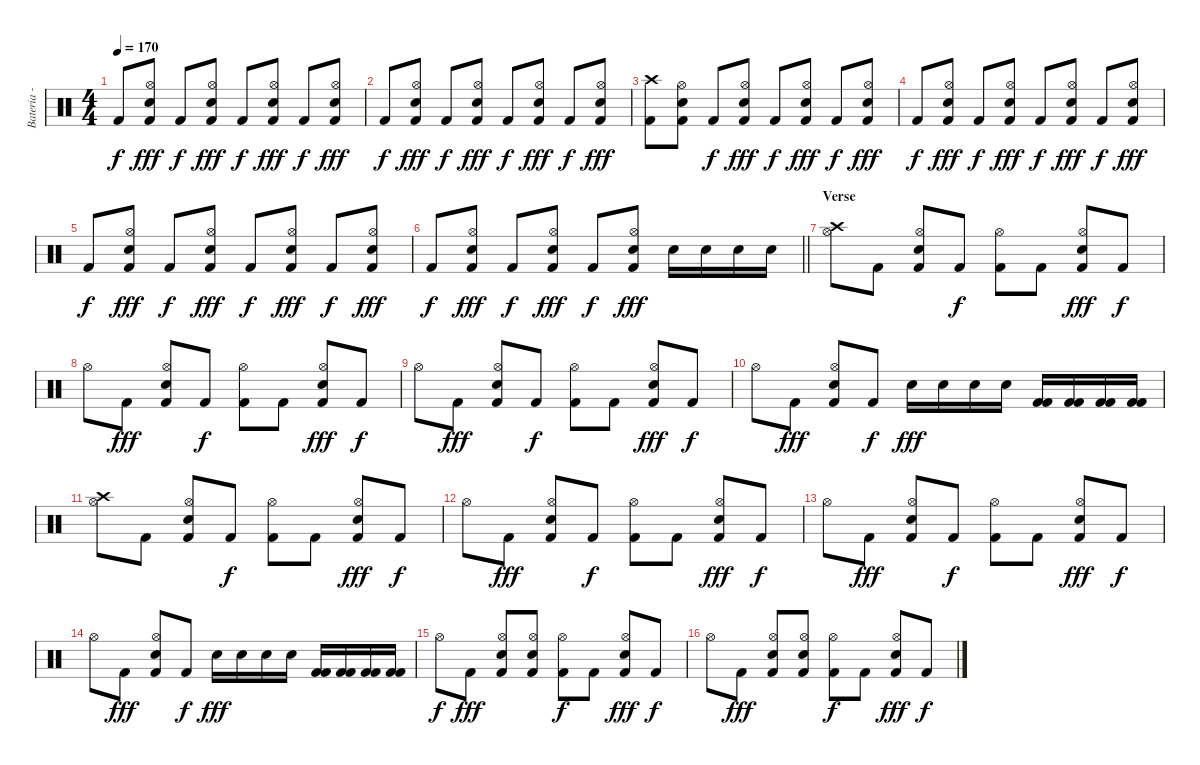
\track ("Bateria - Larzon" "Bateria - ") {instrument percussion}
\staff {score}
\articulation defaults
\ts (4 4)
\tempo 170
\clef neutral
\ks c "Kick (hit) 2".8{dy f}
("Kick (hit) 2" "Hi-Hat (open)" "Snare (hit) 2").8{dy fff} "Kick (hit) 2".8{dy f} ("Kick (hit) 2" "Hi-Hat (open)" "Snare (hit) 2").8{dy fff} "Kick (hit) 2".8{dy f} ("Kick (hit) 2" "Hi-Hat (open)" "Snare (hit) 2").8{dy fff} "Kick (hit) 2".8{dy f} ("Kick (hit) 2" "Hi-Hat (open)" "Snare (hit) 2").8{dy fff} |
"Kick (hit) 2".8{dy f} ("Kick (hit) 2" "Hi-Hat (open)" "Snare (hit) 2").8{dy fff} "Kick (hit) 2".8{dy f} ("Kick (hit) 2" "Hi-Hat (open)" "Snare (hit) 2").8{dy fff} "Kick (hit) 2".8{dy f} ("Kick (hit) 2" "Hi-Hat (open)" "Snare (hit) 2").8{dy fff} "Kick (hit) 2".8{dy f} ("Kick (hit) 2" "Hi-Hat (open)" "Snare (hit) 2").8{dy fff} |
("Crash high (hit)" "Kick (hit) 2").8 ("Kick (hit) 2" "Hi-Hat (open)" "Snare (hit) 2").8 "Kick (hit) 2".8{dy f} ("Kick (hit) 2" "Hi-Hat (open)" "Snare (hit) 2").8{dy fff} "Kick (hit) 2".8{dy f} ("Kick (hit) 2" "Hi-Hat (open)" "Snare (hit) 2").8{dy fff} "Kick (hit) 2".8{dy f} ("Kick (hit) 2" "Hi-Hat (open)" "Snare (hit) 2").8{dy fff} |
"Kick (hit) 2".8{dy f} ("Kick (hit) 2" "Hi-Hat (open)" "Snare (hit) 2").8{dy fff} "Kick (hit) 2".8{dy f} ("Kick (hit) 2" "Hi-Hat (open)" "Snare (hit) 2").8{dy fff} "Kick (hit) 2".8{dy f} ("Kick (hit) 2" "Hi-Hat (open)" "Snare (hit) 2").8{dy fff} "Kick (hit) 2".8{dy f} ("Kick (hit) 2" "Hi-Hat (open)" "Snare (hit) 2").8{dy fff} |
"Kick (hit) 2".8{dy f} ("Kick (hit) 2" "Hi-Hat (open)" "Snare (hit) 2").8{dy fff} "Kick (hit) 2".8{dy f} ("Kick (hit) 2" "Hi-Hat (open)" "Snare (hit) 2").8{dy fff} "Kick (hit) 2".8{dy f} ("Kick (hit) 2" "Hi-Hat (open)" "Snare (hit) 2").8{dy fff} "Kick (hit) 2".8{dy f} ("Kick (hit) 2" "Hi-Hat (open)" "Snare (hit) 2").8{dy fff} |
\barLineRight lightlight "Kick (hit) 2".8{dy f}
("Kick (hit) 2" "Hi-Hat (open)" "Snare (hit) 2").8{dy fff} "Kick (hit) 2".8{dy f} ("Kick (hit) 2" "Hi-Hat (open)" "Snare (hit) 2").8{dy fff} "Kick (hit) 2".8{dy f} ("Kick (hit) 2" "Hi-Hat (open)" "Snare (hit) 2").8{dy fff} "Snare (hit) 2".16 "Snare (hit) 2".16 "Snare (hit) 2".16 "Snare (hit) 2".16 |
\section ("" "Verse")
("Crash high (hit)" "Hi-Hat (open)").8 "Kick (hit) 2".8 ("Kick (hit) 2" "Hi-Hat (open)" "Snare (hit) 2").8 "Kick (hit) 2".8{dy f} ("Kick (hit) 2" "Hi-Hat (open)").8 "Kick (hit) 2".8 ("Kick (hit) 2" "Hi-Hat (open)" "Snare (hit) 2").8{dy fff} "Kick (hit) 2".8{dy f} |
"Hi-Hat (open)".8 "Kick (hit) 2".8{dy fff} ("Kick (hit) 2" "Hi-Hat (open)" "Snare (hit) 2").8 "Kick (hit) 2".8{dy f} ("Kick (hit) 2" "Hi-Hat (open)").8 "Kick (hit) 2".8 ("Kick (hit) 2" "Hi-Hat (open)" "Snare (hit) 2").8{dy fff} "Kick (hit) 2".8{dy f} |
"Hi-Hat (open)".8 "Kick (hit) 2".8{dy fff} ("Kick (hit) 2" "Hi-Hat (open)" "Snare (hit) 2").8 "Kick (hit) 2".8{dy f} ("Kick (hit) 2" "Hi-Hat (open)").8 "Kick (hit) 2".8 ("Kick (hit) 2" "Hi-Hat (open)" "Snare (hit) 2").8{dy fff} "Kick (hit) 2".8{dy f} |
"Hi-Hat (open)".8 "Kick (hit) 2".8{dy fff} ("Kick (hit) 2" "Hi-Hat (open)" "Snare (hit) 2").8 "Kick (hit) 2".8{dy f} "Snare (hit) 2".16{dy fff} "Snare (hit) 2".16 "Snare (hit) 2".16 "Snare (hit) 2".16 ("Kick (hit) 2" "Kick (hit) 2").16 ("Kick (hit) 2" "Kick (hit) 2").16 ("Kick (hit) 2" "Kick (hit) 2").16 ("Kick (hit) 2" "Kick (hit) 2").16 |
("Crash high (hit)" "Hi-Hat (open)").8 "Kick (hit) 2".8 ("Kick (hit) 2" "Hi-Hat (open)" "Snare (hit) 2").8 "Kick (hit) 2".8{dy f} ("Kick (hit) 2" "Hi-Hat (open)").8 "Kick (hit) 2".8 ("Kick (hit) 2" "Hi-Hat (open)" "Snare (hit) 2").8{dy fff} "Kick (hit) 2".8{dy f} |
"Hi-Hat (open)".8 "Kick (hit) 2".8{dy fff} ("Kick (hit) 2" "Hi-Hat (open)" "Snare (hit) 2").8 "Kick (hit) 2".8{dy f} ("Kick (hit) 2" "Hi-Hat (open)").8 "Kick (hit) 2".8 ("Kick (hit) 2" "Hi-Hat (open)" "Snare (hit) 2").8{dy fff} "Kick (hit) 2".8{dy f} |
"Hi-Hat (open)".8 "Kick (hit) 2".8{dy fff} ("Kick (hit) 2" "Hi-Hat (open)" "Snare (hit) 2").8 "Kick (hit) 2".8{dy f} ("Kick (hit) 2" "Hi-Hat (open)").8 "Kick (hit) 2".8 ("Kick (hit) 2" "Hi-Hat (open)" "Snare (hit) 2").8{dy fff} "Kick (hit) 2".8{dy f} |
"Hi-Hat (open)".8 "Kick (hit) 2".8{dy fff} ("Kick (hit) 2" "Hi-Hat (open)" "Snare (hit) 2").8 "Kick (hit) 2".8{dy f} "Snare (hit) 2".16{dy fff} "Snare (hit) 2".16 "Snare (hit) 2".16 "Snare (hit) 2".16 ("Kick (hit) 2" "Kick (hit) 2").16 ("Kick (hit) 2" "Kick (hit) 2").16 ("Kick (hit) 2" "Kick (hit) 2").16 ("Kick (hit) 2" "Kick (hit) 2").16 |
"Hi-Hat (open)".8{dy f} "Kick (hit) 2".8{dy fff} ("Kick (hit) 2" "Hi-Hat (open)" "Snare (hit) 2").8 ("Kick (hit) 2" "Hi-Hat (open)" "Snare (hit) 2").8 ("Kick (hit) 2" "Hi-Hat (open)").8{dy f} "Kick (hit) 2".8 ("Kick (hit) 2" "Hi-Hat (open)" "Snare (hit) 2").8{dy fff} "Kick (hit) 2".8{dy f} |
"Hi-Hat (open)".8 "Kick (hit) 2".8{dy fff} ("Kick (hit) 2" "Hi-Hat (open)" "Snare (hit) 2").8 ("Kick (hit) 2" "Hi-Hat (open)" "Snare (hit) 2").8 ("Kick (hit) 2" "Hi-Hat (open)").8{dy f} "Kick (hit) 2".8 ("Kick (hit) 2" "Hi-Hat (open)" "Snare (hit) 2").8{dy fff} "Kick (hit) 2".8{dy f}
